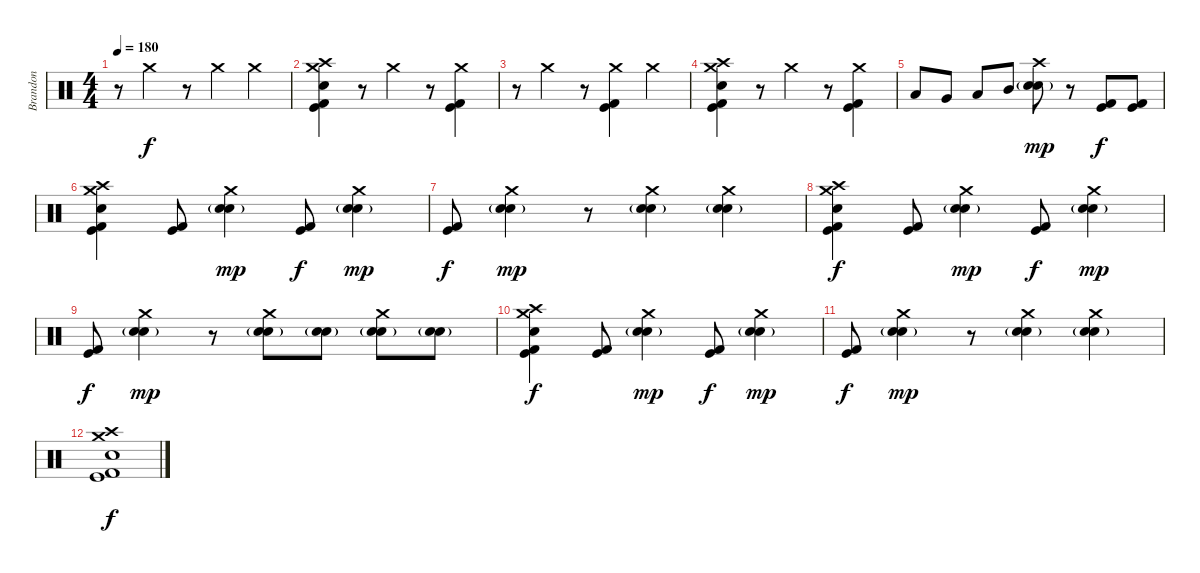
\track ("Brandon" "Brandon") {instrument percussion}
\staff {score}
\articulation defaults
\ts (4 4)
\tempo 180
\clef neutral
\ks c
r.8{dy f} "Crash medium (hit)".4 r.8 "Crash medium (hit)".4 "Crash medium (hit)".4 |
("Crash high (hit)" "Crash medium (hit)" "Snare (hit) 2" "Kick (hit)" "Kick (hit) 2").4 r.8 "Crash medium (hit)".4 r.8 ("Crash medium (hit)" "Kick (hit)" "Kick (hit) 2").4 |
r.8 "Crash medium (hit)".4 r.8 ("Crash medium (hit)" "Kick (hit)" "Kick (hit) 2").4 "Crash medium (hit)".4 |
("Crash high (hit)" "Crash medium (hit)" "Snare (hit) 2" "Kick (hit)" "Kick (hit) 2").4 r.8 "Crash medium (hit)".4 r.8 ("Crash medium (hit)" "Kick (hit)" "Kick (hit) 2").4 |
"Low Tom (hit)".8 "Very Low Tom (hit)".8 "Low Floor Tom (hit)".8 "Mid Tom (hit)".8 ("Crash high (hit)" "Snare (hit) 2" "Electric Snare (hit)"{g}).8{dy mp} r.8 ("Kick (hit)" "Kick (hit) 2").8{dy f} ("Kick (hit)" "Kick (hit) 2").8 |
("Crash high (hit)" "Crash medium (hit)" "Snare (hit) 2" "Kick (hit)" "Kick (hit) 2").4 ("Kick (hit)" "Kick (hit) 2").8 ("Crash medium (hit)" "Snare (hit) 2" "Electric Snare (hit)"{g}).4{dy mp} ("Kick (hit)" "Kick (hit) 2").8{dy f} ("Crash medium (hit)" "Snare (hit) 2" "Electric Snare (hit)"{g}).4{dy mp} |
("Kick (hit)" "Kick (hit) 2").8{dy f} ("Crash medium (hit)" "Snare (hit) 2" "Electric Snare (hit)"{g}).4{dy mp} r.8 ("Crash medium (hit)" "Snare (hit) 2" "Electric Snare (hit)"{g}).4 ("Crash medium (hit)" "Snare (hit) 2" "Electric Snare (hit)"{g}).4 |
("Crash high (hit)" "Crash medium (hit)" "Snare (hit) 2" "Kick (hit)" "Kick (hit) 2").4{dy f} ("Kick (hit)" "Kick (hit) 2").8 ("Crash medium (hit)" "Snare (hit) 2" "Electric Snare (hit)"{g}).4{dy mp} ("Kick (hit)" "Kick (hit) 2").8{dy f} ("Crash medium (hit)" "Snare (hit) 2" "Electric Snare (hit)"{g}).4{dy mp} |
("Kick (hit)" "Kick (hit) 2").8{dy f} ("Crash medium (hit)" "Snare (hit) 2" "Electric Snare (hit)"{g}).4{dy mp} r.8 ("Crash medium (hit)" "Snare (hit) 2" "Electric Snare (hit)"{g}).8 ("Snare (hit) 2" "Electric Snare (hit)"{g}).8 ("Crash medium (hit)" "Snare (hit) 2" "Electric Snare (hit)"{g}).8 ("Snare (hit) 2" "Electric Snare (hit)"{g}).8 |
("Crash high (hit)" "Crash medium (hit)" "Snare (hit) 2" "Kick (hit)" "Kick (hit) 2").4{dy f} ("Kick (hit)" "Kick (hit) 2").8 ("Crash medium (hit)" "Snare (hit) 2" "Electric Snare (hit)"{g}).4{dy mp} ("Kick (hit)" "Kick (hit) 2").8{dy f} ("Crash medium (hit)" "Snare (hit) 2" "Electric Snare (hit)"{g}).4{dy mp} |
("Kick (hit)" "Kick (hit) 2").8{dy f} ("Crash medium (hit)" "Snare (hit) 2" "Electric Snare (hit)"{g}).4{dy mp} r.8 ("Crash medium (hit)" "Snare (hit) 2" "Electric Snare (hit)"{g}).4 ("Crash medium (hit)" "Snare (hit) 2" "Electric Snare (hit)"{g}).4 |
("Crash high (hit)" "Crash medium (hit)" "Snare (hit) 2" "Kick (hit)" "Kick (hit) 2").1{dy f}
